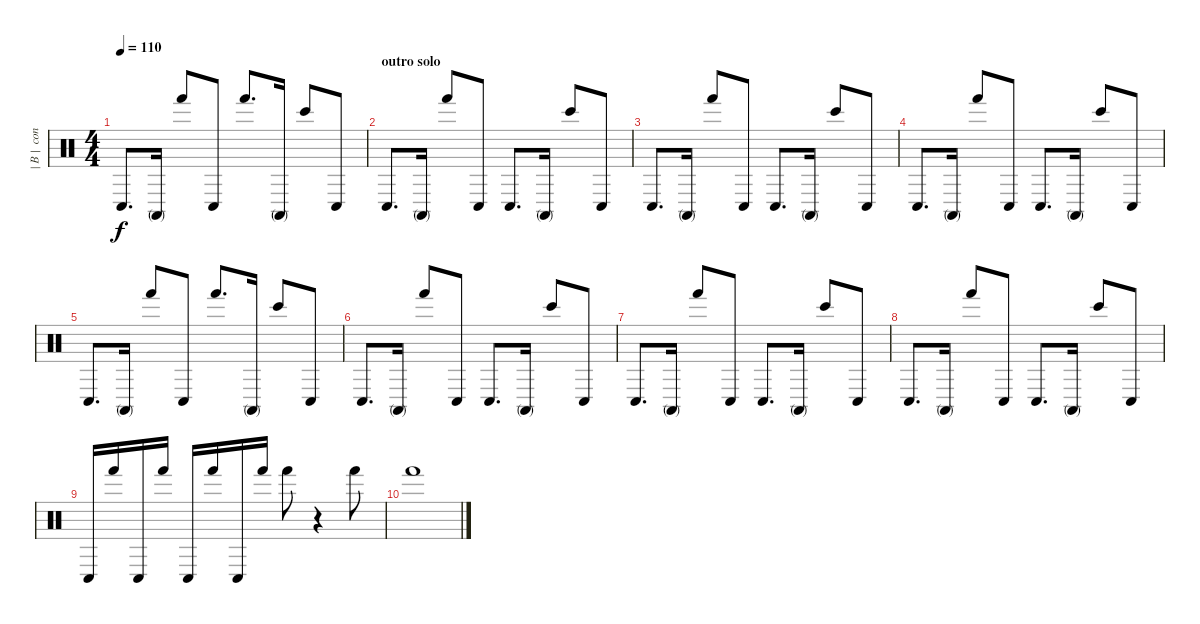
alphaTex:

\track ("| B |  conga" "| B |  con") {instrument percussion}
\staff {score}
\articulation defaults
\ts (4 4)
\tempo 110
\clef neutral
\ks c "Conga low (hit)".8{d dy f} "Conga high (mute)".16 "Hand (hit)".8 "Conga low (hit)".8 "Hand (hit)".8{d} "Conga high (mute)".16 "Bongo High (hit)".8 "Conga low (hit)".8
|
\section ("" "outro solo")
"Conga low (hit)".8{d} "Conga high (mute)".16 "Hand (hit)".8 "Conga low (hit)".8 "Conga low (hit)".8{d} "Conga high (mute)".16 "Bongo High (hit)".8 "Conga low (hit)".8 |
"Conga low (hit)".8{d} "Conga high (mute)".16 "Hand (hit)".8 "Conga low (hit)".8 "Conga low (hit)".8{d} "Conga high (mute)".16 "Bongo High (hit)".8 "Conga low (hit)".8 |
"Conga low (hit)".8{d} "Conga high (mute)".16 "Hand (hit)".8 "Conga low (hit)".8 "Conga low (hit)".8{d} "Conga high (mute)".16 "Bongo High (hit)".8 "Conga low (hit)".8 |
"Conga low (hit)".8{d} "Conga high (mute)".16 "Hand (hit)".8 "Conga low (hit)".8 "Hand (hit)".8{d} "Conga high (mute)".16 "Bongo High (hit)".8 "Conga low (hit)".8 |
"Conga low (hit)".8{d} "Conga high (mute)".16 "Hand (hit)".8 "Conga low (hit)".8 "Conga low (hit)".8{d} "Conga high (mute)".16 "Bongo High (hit)".8 "Conga low (hit)".8 |
"Conga low (hit)".8{d} "Conga high (mute)".16 "Hand (hit)".8 "Conga low (hit)".8 "Conga low (hit)".8{d} "Conga high (mute)".16 "Bongo High (hit)".8 "Conga low (hit)".8 |
"Conga low (hit)".8{d} "Conga high (mute)".16 "Hand (hit)".8 "Conga low (hit)".8 "Conga low (hit)".8{d} "Conga high (mute)".16 "Bongo High (hit)".8 "Conga low (hit)".8 |
"Conga low (hit)".16 "Hand (hit)".16 "Conga low (hit)".16 "Hand (hit)".16 "Conga low (hit)".16 "Hand (hit)".16 "Conga low (hit)".16 "Hand (hit)".16 "Hand (hit)".8 r.4 "Hand (hit)".8 |
"Hand (hit)".1
